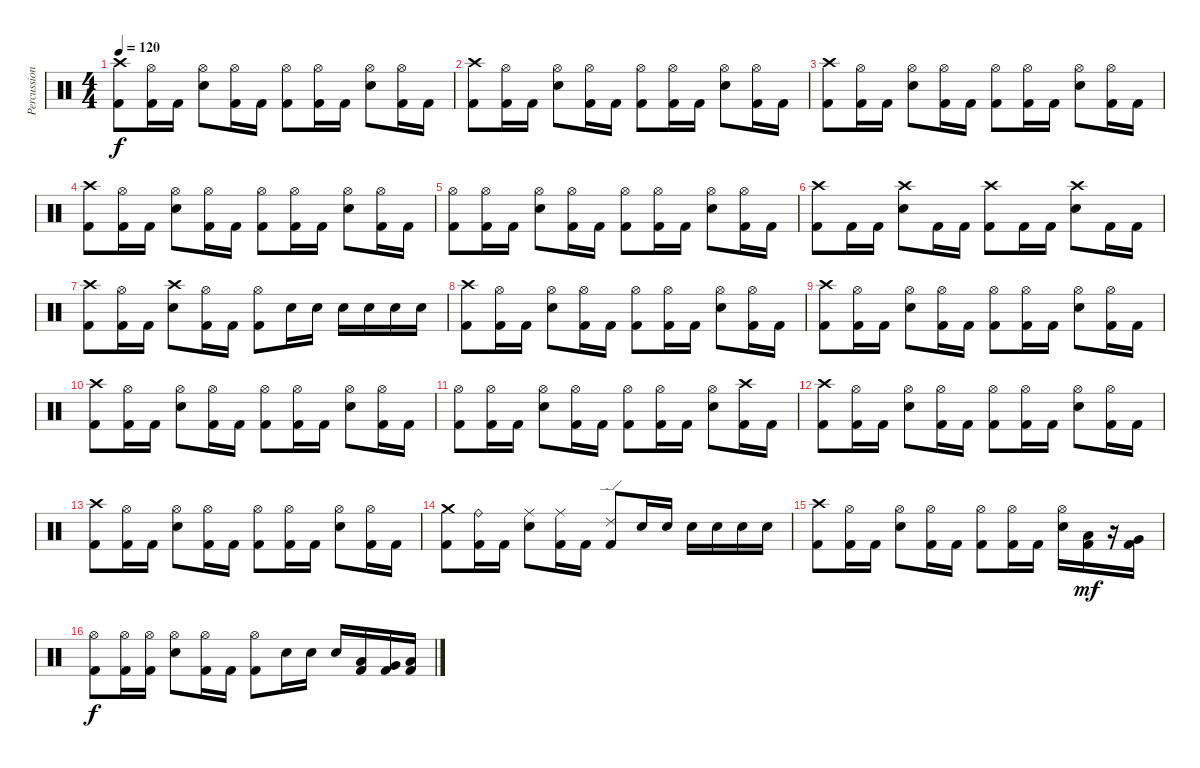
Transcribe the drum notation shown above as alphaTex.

\track ("Percussion" "Percussion") {instrument percussion}
\staff {score}
\articulation defaults
\ts (4 4)
\tempo 120
\clef neutral
\ks c
("Crash high (hit)" "Kick (hit) 2").8{dy f} ("Hi-Hat (open)" "Kick (hit) 2").16 "Kick (hit) 2".16 ("Hi-Hat (open)" "Snare (hit) 2").8 ("Hi-Hat (open)" "Kick (hit) 2").16 "Kick (hit) 2".16 ("Hi-Hat (open)" "Kick (hit) 2").8 ("Hi-Hat (open)" "Kick (hit) 2").16 "Kick (hit) 2".16 ("Hi-Hat (open)" "Snare (hit) 2").8 ("Hi-Hat (open)" "Kick (hit) 2").16 "Kick (hit) 2".16 |
("Crash high (hit)" "Kick (hit) 2").8 ("Hi-Hat (open)" "Kick (hit) 2").16 "Kick (hit) 2".16 ("Hi-Hat (open)" "Snare (hit) 2").8 ("Hi-Hat (open)" "Kick (hit) 2").16 "Kick (hit) 2".16 ("Hi-Hat (open)" "Kick (hit) 2").8 ("Hi-Hat (open)" "Kick (hit) 2").16 "Kick (hit) 2".16 ("Hi-Hat (open)" "Snare (hit) 2").8 ("Hi-Hat (open)" "Kick (hit) 2").16 "Kick (hit) 2".16 |
("Crash high (hit)" "Kick (hit) 2").8 ("Hi-Hat (open)" "Kick (hit) 2").16 "Kick (hit) 2".16 ("Hi-Hat (open)" "Snare (hit) 2").8 ("Hi-Hat (open)" "Kick (hit) 2").16 "Kick (hit) 2".16 ("Hi-Hat (open)" "Kick (hit) 2").8 ("Hi-Hat (open)" "Kick (hit) 2").16 "Kick (hit) 2".16 ("Hi-Hat (open)" "Snare (hit) 2").8 ("Hi-Hat (open)" "Kick (hit) 2").16 "Kick (hit) 2".16 |
("Crash high (hit)" "Kick (hit) 2").8 ("Hi-Hat (open)" "Kick (hit) 2").16 "Kick (hit) 2".16 ("Hi-Hat (open)" "Snare (hit) 2").8 ("Hi-Hat (open)" "Kick (hit) 2").16 "Kick (hit) 2".16 ("Hi-Hat (open)" "Kick (hit) 2").8 ("Hi-Hat (open)" "Kick (hit) 2").16 "Kick (hit) 2".16 ("Hi-Hat (open)" "Snare (hit) 2").8 ("Hi-Hat (open)" "Kick (hit) 2").16 "Kick (hit) 2".16 |
("Hi-Hat (open)" "Kick (hit) 2").8 ("Hi-Hat (open)" "Kick (hit) 2").16 "Kick (hit) 2".16 ("Hi-Hat (open)" "Snare (hit) 2").8 ("Hi-Hat (open)" "Kick (hit) 2").16 "Kick (hit) 2".16 ("Hi-Hat (open)" "Kick (hit) 2").8 ("Hi-Hat (open)" "Kick (hit) 2").16 "Kick (hit) 2".16 ("Hi-Hat (open)" "Snare (hit) 2").8 ("Hi-Hat (open)" "Kick (hit) 2").16 "Kick (hit) 2".16 |
("Crash high (hit)" "Kick (hit) 2").8 "Kick (hit) 2".16 "Kick (hit) 2".16 ("Crash high (hit)" "Snare (hit) 2").8 "Kick (hit) 2".16 "Kick (hit) 2".16 ("Crash high (hit)" "Kick (hit) 2").8 "Kick (hit) 2".16 "Kick (hit) 2".16 ("Crash high (hit)" "Snare (hit) 2").8 "Kick (hit) 2".16 "Kick (hit) 2".16 |
("Crash high (hit)" "Kick (hit) 2").8 ("Hi-Hat (open)" "Kick (hit) 2").16 "Kick (hit) 2".16 ("Crash high (hit)" "Snare (hit) 2").8 ("Hi-Hat (open)" "Kick (hit) 2").16 "Kick (hit) 2".16 ("Hi-Hat (open)" "Kick (hit) 2").8 "Snare (hit) 2".16 "Snare (hit) 2".16 "Snare (hit) 2".16 "Snare (hit) 2".16 "Snare (hit) 2".16 "Snare (hit) 2".16 |
("Crash high (hit)" "Kick (hit) 2").8 ("Hi-Hat (open)" "Kick (hit) 2").16 "Kick (hit) 2".16 ("Hi-Hat (open)" "Snare (hit) 2").8 ("Hi-Hat (open)" "Kick (hit) 2").16 "Kick (hit) 2".16 ("Hi-Hat (open)" "Kick (hit) 2").8 ("Hi-Hat (open)" "Kick (hit) 2").16 "Kick (hit) 2".16 ("Hi-Hat (open)" "Snare (hit) 2").8 ("Hi-Hat (open)" "Kick (hit) 2").16 "Kick (hit) 2".16 |
("Crash high (hit)" "Kick (hit) 2").8 ("Hi-Hat (open)" "Kick (hit) 2").16 "Kick (hit) 2".16 ("Hi-Hat (open)" "Snare (hit) 2").8 ("Hi-Hat (open)" "Kick (hit) 2").16 "Kick (hit) 2".16 ("Hi-Hat (open)" "Kick (hit) 2").8 ("Hi-Hat (open)" "Kick (hit) 2").16 "Kick (hit) 2".16 ("Hi-Hat (open)" "Snare (hit) 2").8 ("Hi-Hat (open)" "Kick (hit) 2").16 "Kick (hit) 2".16 |
("Crash high (hit)" "Kick (hit) 2").8 ("Hi-Hat (open)" "Kick (hit) 2").16 "Kick (hit) 2".16 ("Hi-Hat (open)" "Snare (hit) 2").8 ("Hi-Hat (open)" "Kick (hit) 2").16 "Kick (hit) 2".16 ("Hi-Hat (open)" "Kick (hit) 2").8 ("Hi-Hat (open)" "Kick (hit) 2").16 "Kick (hit) 2".16 ("Hi-Hat (open)" "Snare (hit) 2").8 ("Hi-Hat (open)" "Kick (hit) 2").16 "Kick (hit) 2".16 |
("Hi-Hat (open)" "Kick (hit) 2").8 ("Hi-Hat (open)" "Kick (hit) 2").16 "Kick (hit) 2".16 ("Hi-Hat (open)" "Snare (hit) 2").8 ("Hi-Hat (open)" "Kick (hit) 2").16 "Kick (hit) 2".16 ("Hi-Hat (open)" "Kick (hit) 2").8 ("Hi-Hat (open)" "Kick (hit) 2").16 "Kick (hit) 2".16 ("Hi-Hat (open)" "Snare (hit) 2").8 ("Crash high (hit)" "Kick (hit) 2").16 "Kick (hit) 2".16 |
("Crash high (hit)" "Kick (hit) 2").8 ("Hi-Hat (open)" "Kick (hit) 2").16 "Kick (hit) 2".16 ("Hi-Hat (open)" "Snare (hit) 2").8 ("Hi-Hat (open)" "Kick (hit) 2").16 "Kick (hit) 2".16 ("Hi-Hat (open)" "Kick (hit) 2").8 ("Hi-Hat (open)" "Kick (hit) 2").16 "Kick (hit) 2".16 ("Hi-Hat (open)" "Snare (hit) 2").8 ("Hi-Hat (open)" "Kick (hit) 2").16 "Kick (hit) 2".16 |
("Crash high (hit)" "Kick (hit) 2").8 ("Hi-Hat (open)" "Kick (hit) 2").16 "Kick (hit) 2".16 ("Hi-Hat (open)" "Snare (hit) 2").8 ("Hi-Hat (open)" "Kick (hit) 2").16 "Kick (hit) 2".16 ("Hi-Hat (open)" "Kick (hit) 2").8 ("Hi-Hat (open)" "Kick (hit) 2").16 "Kick (hit) 2".16 ("Hi-Hat (open)" "Snare (hit) 2").8 ("Hi-Hat (open)" "Kick (hit) 2").16 "Kick (hit) 2".16 |
("Crash medium (hit)" "Kick (hit) 2").8 ("Ride (bell)" "Kick (hit) 2").16 "Kick (hit) 2".16 ("Ride (middle)" "Snare (hit) 2").8 ("Ride (middle)" "Kick (hit) 2").16 "Kick (hit) 2".16 ("Ride (edge) 2" "Kick (hit) 2").8 "Snare (hit) 2".16 "Snare (hit) 2".16 "Snare (hit) 2".16 "Snare (hit) 2".16 "Snare (hit) 2".16 "Snare (hit) 2".16 |
("Crash high (hit)" "Kick (hit) 2").8 ("Hi-Hat (open)" "Kick (hit) 2").16 "Kick (hit) 2".16 ("Hi-Hat (open)" "Snare (hit) 2").8 ("Hi-Hat (open)" "Kick (hit) 2").16 "Kick (hit) 2".16 ("Hi-Hat (open)" "Kick (hit) 2").8 ("Hi-Hat (open)" "Kick (hit) 2").16 "Kick (hit) 2".16 ("Hi-Hat (open)" "Snare (hit) 2").16 ("Low Tom (hit)" "Kick (hit) 2").16{dy mf} r.16 ("Very Low Tom (hit)" "Kick (hit) 2").16 |
("Hi-Hat (open)" "Kick (hit) 2").8{dy f} ("Hi-Hat (open)" "Kick (hit) 2").16 ("Hi-Hat (open)" "Kick (hit) 2").16 ("Hi-Hat (open)" "Snare (hit) 2").8 ("Hi-Hat (open)" "Kick (hit) 2").16 "Kick (hit) 2".16 ("Hi-Hat (open)" "Kick (hit) 2").8 "Snare (hit) 2".16 "Snare (hit) 2".16 "Snare (hit) 2".16 ("Low Tom (hit)" "Kick (hit) 2").16 ("Very Low Tom (hit)" "Kick (hit) 2").16 ("Low Floor Tom (hit)" "Kick (hit) 2").16
